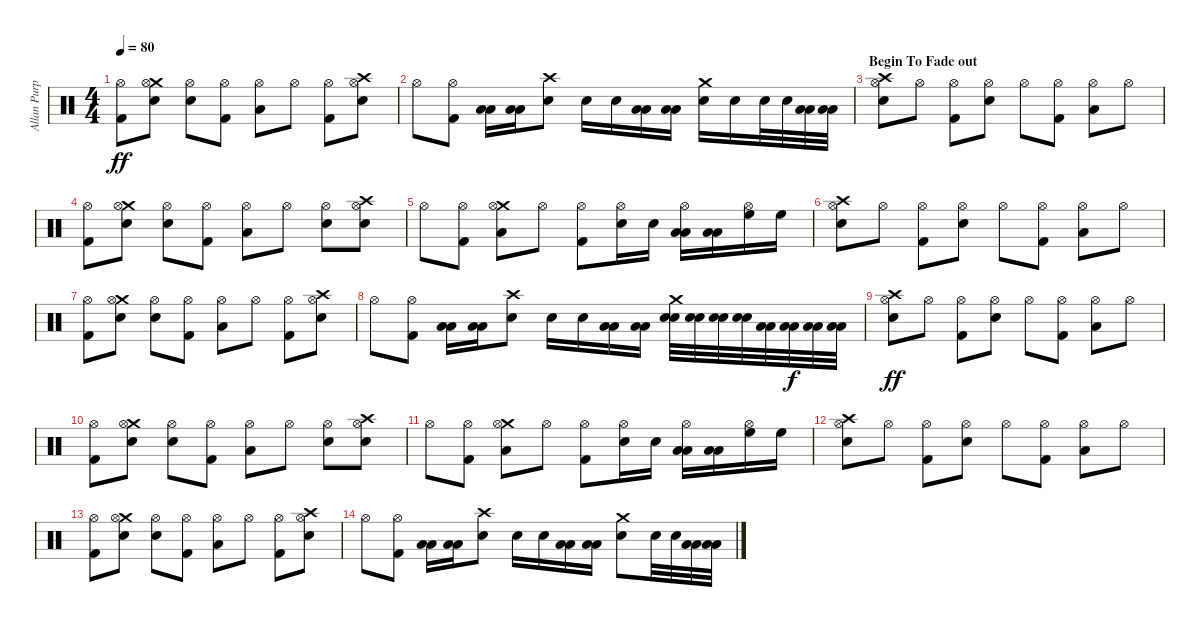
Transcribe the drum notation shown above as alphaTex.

\track ("Allan Purple" "Allan Purp") {instrument percussion}
\staff {score}
\articulation defaults
\ts (4 4)
\tempo 80
\clef neutral
\ks c
("Hi-Hat (open)" "Kick (hit) 2").8{dy ff} ("Crash medium (hit)" "Hi-Hat (open)" "Snare (hit) 2").8 ("Hi-Hat (open)" "Electric Snare (hit)").8 ("Hi-Hat (open)" "Kick (hit) 2").8 ("Hi-Hat (open)" "Low Tom (hit)").8 "Hi-Hat (open)".8 ("Hi-Hat (open)" "Kick (hit) 2").8 ("Crash high (hit)" "Hi-Hat (open)" "Snare (hit) 2").8 |
"Hi-Hat (open)".8 ("Hi-Hat (open)" "Kick (hit) 2").8 ("Low Tom (hit)" "Low Tom (hit)").16 ("Low Tom (hit)" "Low Tom (hit)").16 ("Crash high (hit)" "Electric Snare (hit)").8 "Electric Snare (hit)".16 "Electric Snare (hit)".16 ("Low Tom (hit)" "Low Tom (hit)").16 ("Low Tom (hit)" "Low Tom (hit)").16 ("Crash medium (hit)" "Snare (hit) 2").16 "Snare (hit) 2".16 "Electric Snare (hit)".32 "Electric Snare (hit)".32 ("Low Tom (hit)" "Low Tom (hit)").32 ("Low Tom (hit)" "Low Tom (hit)").32 |
\section ("" "Begin To Fade out")
("Crash high (hit)" "Hi-Hat (open)" "Snare (hit) 2").8{volume 15} "Hi-Hat (open)".8 ("Hi-Hat (open)" "Kick (hit) 2").8 ("Hi-Hat (open)" "Snare (hit) 2").8 "Hi-Hat (open)".8 ("Hi-Hat (open)" "Kick (hit) 2").8 ("Hi-Hat (open)" "Low Tom (hit)").8 "Hi-Hat (open)".8 |
("Hi-Hat (open)" "Kick (hit) 2").8{volume 14} ("Crash medium (hit)" "Hi-Hat (open)" "Snare (hit) 2").8 ("Hi-Hat (open)" "Electric Snare (hit)").8 ("Hi-Hat (open)" "Kick (hit) 2").8 ("Hi-Hat (open)" "Low Tom (hit)").8 "Hi-Hat (open)".8 ("Hi-Hat (open)" "Snare (hit) 2").8 ("Crash high (hit)" "Hi-Hat (open)" "Snare (hit) 2").8 |
"Hi-Hat (open)".8{volume 13} ("Hi-Hat (open)" "Kick (hit) 2").8 ("Crash medium (hit)" "Hi-Hat (open)" "Low Tom (hit)").8 "Hi-Hat (open)".8 ("Hi-Hat (open)" "Kick (hit) 2").8 ("Hi-Hat (open)" "Snare (hit) 2").16 "Electric Snare (hit)".16 ("Hi-Hat (open)" "Low Tom (hit)" "Low Tom (hit)").16 ("Low Tom (hit)" "Low Tom (hit)").16 ("Hi-Hat (open)" "High Floor Tom (hit)").16 "High Floor Tom (hit)".16 |
("Crash high (hit)" "Hi-Hat (open)" "Snare (hit) 2").8{volume 12} "Hi-Hat (open)".8 ("Hi-Hat (open)" "Kick (hit) 2").8 ("Hi-Hat (open)" "Snare (hit) 2").8 "Hi-Hat (open)".8 ("Hi-Hat (open)" "Kick (hit) 2").8 ("Hi-Hat (open)" "Low Tom (hit)").8 "Hi-Hat (open)".8 |
("Hi-Hat (open)" "Kick (hit) 2").8{volume 11} ("Crash medium (hit)" "Hi-Hat (open)" "Snare (hit) 2").8 ("Hi-Hat (open)" "Electric Snare (hit)").8 ("Hi-Hat (open)" "Kick (hit) 2").8 ("Hi-Hat (open)" "Low Tom (hit)").8 "Hi-Hat (open)".8 ("Hi-Hat (open)" "Kick (hit) 2").8 ("Crash high (hit)" "Hi-Hat (open)" "Snare (hit) 2").8 |
"Hi-Hat (open)".8{volume 10} ("Hi-Hat (open)" "Kick (hit) 2").8 ("Low Tom (hit)" "Low Tom (hit)").16 ("Low Tom (hit)" "Low Tom (hit)").16 ("Crash high (hit)" "Electric Snare (hit)").8 "Electric Snare (hit)".16 "Electric Snare (hit)".16 ("Low Tom (hit)" "Low Tom (hit)").16 ("Low Tom (hit)" "Low Tom (hit)").16 ("Crash medium (hit)" "Electric Snare (hit)" "Electric Snare (hit)").32 ("Electric Snare (hit)" "Electric Snare (hit)").32 ("Electric Snare (hit)" "Electric Snare (hit)").32 ("Electric Snare (hit)" "Electric Snare (hit)").32 ("Low Tom (hit)" "Low Tom (hit)").32 ("Low Tom (hit)" "Low Tom (hit)").32{dy f} ("Low Tom (hit)" "Low Tom (hit)").32 ("Low Tom (hit)" "Low Tom (hit)").32 |
("Crash high (hit)" "Hi-Hat (open)" "Snare (hit) 2").8{dy ff volume 9} "Hi-Hat (open)".8 ("Hi-Hat (open)" "Kick (hit) 2").8 ("Hi-Hat (open)" "Snare (hit) 2").8 "Hi-Hat (open)".8 ("Hi-Hat (open)" "Kick (hit) 2").8 ("Hi-Hat (open)" "Low Tom (hit)").8 "Hi-Hat (open)".8 |
("Hi-Hat (open)" "Kick (hit) 2").8{volume 8} ("Crash medium (hit)" "Hi-Hat (open)" "Snare (hit) 2").8 ("Hi-Hat (open)" "Electric Snare (hit)").8 ("Hi-Hat (open)" "Kick (hit) 2").8 ("Hi-Hat (open)" "Low Tom (hit)").8 "Hi-Hat (open)".8 ("Hi-Hat (open)" "Snare (hit) 2").8 ("Crash high (hit)" "Hi-Hat (open)" "Snare (hit) 2").8 |
"Hi-Hat (open)".8{volume 7} ("Hi-Hat (open)" "Kick (hit) 2").8 ("Crash medium (hit)" "Hi-Hat (open)" "Low Tom (hit)").8 "Hi-Hat (open)".8 ("Hi-Hat (open)" "Kick (hit) 2").8 ("Hi-Hat (open)" "Snare (hit) 2").16 "Electric Snare (hit)".16 ("Hi-Hat (open)" "Low Tom (hit)" "Low Tom (hit)").16 ("Low Tom (hit)" "Low Tom (hit)").16 ("Hi-Hat (open)" "High Floor Tom (hit)").16 "High Floor Tom (hit)".16 |
("Crash high (hit)" "Hi-Hat (open)" "Snare (hit) 2").8{volume 6} "Hi-Hat (open)".8 ("Hi-Hat (open)" "Kick (hit) 2").8 ("Hi-Hat (open)" "Snare (hit) 2").8 "Hi-Hat (open)".8 ("Hi-Hat (open)" "Kick (hit) 2").8 ("Hi-Hat (open)" "Low Tom (hit)").8 "Hi-Hat (open)".8 |
("Hi-Hat (open)" "Kick (hit) 2").8{volume 5} ("Crash medium (hit)" "Hi-Hat (open)" "Snare (hit) 2").8 ("Hi-Hat (open)" "Electric Snare (hit)").8 ("Hi-Hat (open)" "Kick (hit) 2").8 ("Hi-Hat (open)" "Low Tom (hit)").8 "Hi-Hat (open)".8 ("Hi-Hat (open)" "Kick (hit) 2").8 ("Crash high (hit)" "Hi-Hat (open)" "Snare (hit) 2").8 |
"Hi-Hat (open)".8{volume 4} ("Hi-Hat (open)" "Kick (hit) 2").8 ("Low Tom (hit)" "Low Tom (hit)").16 ("Low Tom (hit)" "Low Tom (hit)").16 ("Crash high (hit)" "Electric Snare (hit)").8 "Electric Snare (hit)".16 "Electric Snare (hit)".16 ("Low Tom (hit)" "Low Tom (hit)").16 ("Low Tom (hit)" "Low Tom (hit)").16 ("Crash medium (hit)" "Snare (hit) 2").8 "Electric Snare (hit)".32 "Electric Snare (hit)".32 ("Low Tom (hit)" "Low Tom (hit)").32 ("Low Tom (hit)" "Low Tom (hit)").32
